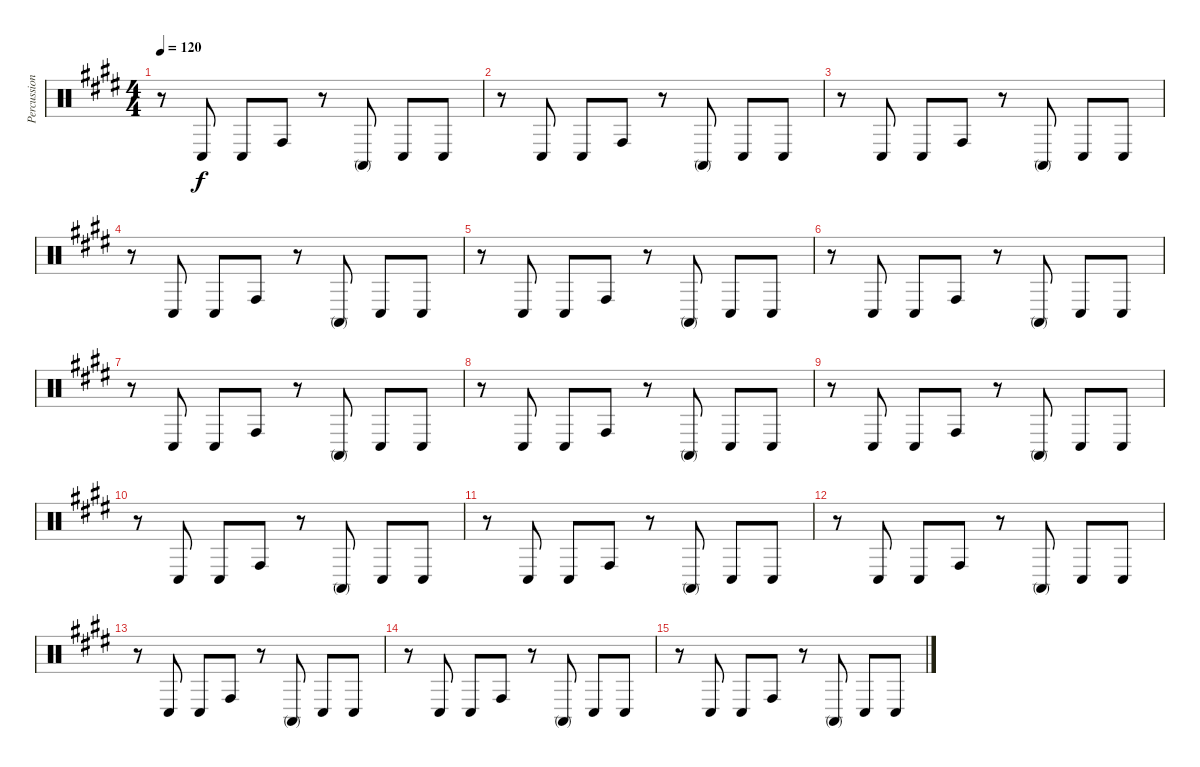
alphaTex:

\track ("Percussion" "Percussion") {instrument percussion}
\staff {score}
\articulation defaults
\ts (4 4)
\tempo 120
\clef neutral
\ks e
r.8{dy f} "Conga low (hit)".8 "Conga low (hit)".8 "Conga high (hit)".8 r.8 "Conga high (mute)".8 "Conga low (hit)".8 "Conga low (hit)".8 |
r.8 "Conga low (hit)".8 "Conga low (hit)".8 "Conga high (hit)".8 r.8 "Conga high (mute)".8 "Conga low (hit)".8 "Conga low (hit)".8 |
r.8 "Conga low (hit)".8 "Conga low (hit)".8 "Conga high (hit)".8 r.8 "Conga high (mute)".8 "Conga low (hit)".8 "Conga low (hit)".8 |
r.8 "Conga low (hit)".8 "Conga low (hit)".8 "Conga high (hit)".8 r.8 "Conga high (mute)".8 "Conga low (hit)".8 "Conga low (hit)".8 |
r.8 "Conga low (hit)".8 "Conga low (hit)".8 "Conga high (hit)".8 r.8 "Conga high (mute)".8 "Conga low (hit)".8 "Conga low (hit)".8 |
r.8 "Conga low (hit)".8 "Conga low (hit)".8 "Conga high (hit)".8 r.8 "Conga high (mute)".8 "Conga low (hit)".8 "Conga low (hit)".8 |
r.8 "Conga low (hit)".8 "Conga low (hit)".8 "Conga high (hit)".8 r.8 "Conga high (mute)".8 "Conga low (hit)".8 "Conga low (hit)".8 |
r.8 "Conga low (hit)".8 "Conga low (hit)".8 "Conga high (hit)".8 r.8 "Conga high (mute)".8 "Conga low (hit)".8 "Conga low (hit)".8 |
r.8 "Conga low (hit)".8 "Conga low (hit)".8 "Conga high (hit)".8 r.8 "Conga high (mute)".8 "Conga low (hit)".8 "Conga low (hit)".8 |
r.8 "Conga low (hit)".8 "Conga low (hit)".8 "Conga high (hit)".8 r.8 "Conga high (mute)".8 "Conga low (hit)".8 "Conga low (hit)".8 |
r.8 "Conga low (hit)".8 "Conga low (hit)".8 "Conga high (hit)".8 r.8 "Conga high (mute)".8 "Conga low (hit)".8 "Conga low (hit)".8 |
r.8 "Conga low (hit)".8 "Conga low (hit)".8 "Conga high (hit)".8 r.8 "Conga high (mute)".8 "Conga low (hit)".8 "Conga low (hit)".8 |
r.8 "Conga low (hit)".8 "Conga low (hit)".8 "Conga high (hit)".8 r.8 "Conga high (mute)".8 "Conga low (hit)".8 "Conga low (hit)".8 |
r.8 "Conga low (hit)".8 "Conga low (hit)".8 "Conga high (hit)".8 r.8 "Conga high (mute)".8 "Conga low (hit)".8 "Conga low (hit)".8 |
r.8 "Conga low (hit)".8 "Conga low (hit)".8 "Conga high (hit)".8 r.8 "Conga high (mute)".8 "Conga low (hit)".8 "Conga low (hit)".8
